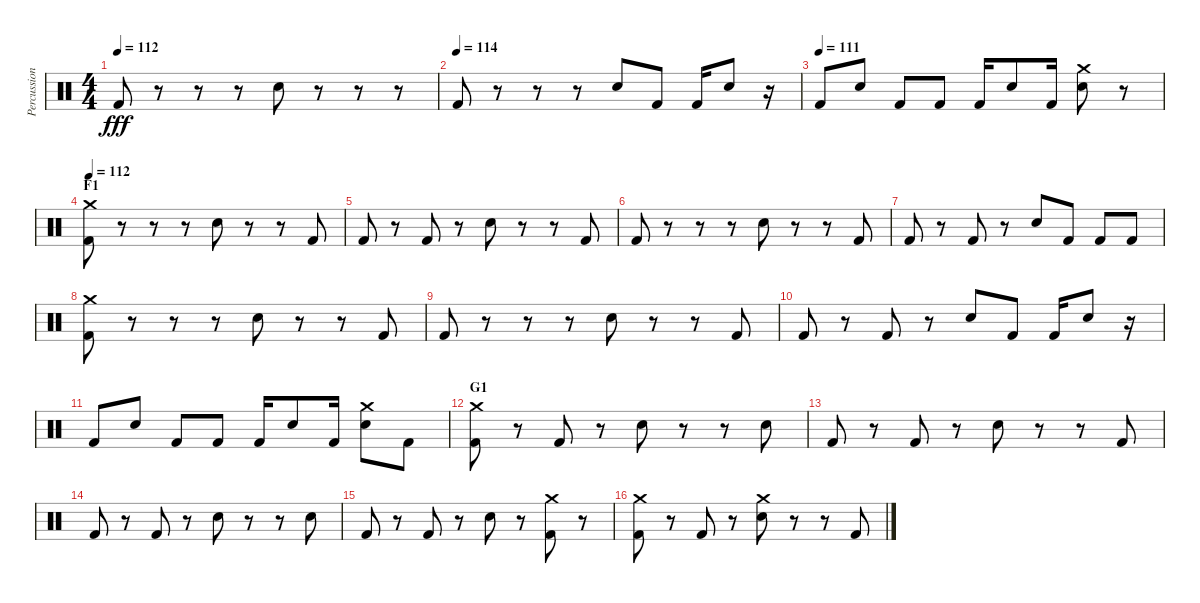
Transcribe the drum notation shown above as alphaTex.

\track ("Percussion" "Percussion") {instrument percussion}
\staff {score}
\articulation defaults
\ts (4 4)
\tempo 112
\clef neutral
\ks c "Kick (hit) 2".8{dy fff}
r.8 r.8 r.8 "Electric Snare (hit)".8 r.8 r.8 r.8 |
\tempo (114)
"Kick (hit) 2".8 r.8 r.8 r.8 "Electric Snare (hit)".8 "Kick (hit) 2".8 "Kick (hit) 2".16 "Electric Snare (hit)".8 r.16 |
\tempo (111)
"Kick (hit) 2".8 "Electric Snare (hit)".8 "Kick (hit) 2".8 "Kick (hit) 2".8 "Kick (hit) 2".16 "Electric Snare (hit)".8 "Kick (hit) 2".16 ("Electric Snare (hit)" "Crash medium (hit)").8 r.8 |
\section ("" "F1")
\tempo 112
("Kick (hit) 2" "Crash medium (hit)").8 r.8 r.8 r.8 "Electric Snare (hit)".8 r.8 r.8 "Kick (hit) 2".8 |
"Kick (hit) 2".8 r.8 "Kick (hit) 2".8 r.8 "Electric Snare (hit)".8 r.8 r.8 "Kick (hit) 2".8 |
"Kick (hit) 2".8 r.8 r.8 r.8 "Electric Snare (hit)".8 r.8 r.8 "Kick (hit) 2".8 |
"Kick (hit) 2".8 r.8 "Kick (hit) 2".8 r.8 "Electric Snare (hit)".8 "Kick (hit) 2".8 "Kick (hit) 2".8 "Kick (hit) 2".8 |
("Kick (hit) 2" "Crash medium (hit)").8 r.8 r.8 r.8 "Electric Snare (hit)".8 r.8 r.8 "Kick (hit) 2".8 |
"Kick (hit) 2".8 r.8 r.8 r.8 "Electric Snare (hit)".8 r.8 r.8 "Kick (hit) 2".8 |
"Kick (hit) 2".8 r.8 "Kick (hit) 2".8 r.8 "Electric Snare (hit)".8 "Kick (hit) 2".8 "Kick (hit) 2".16 "Electric Snare (hit)".8 r.16 |
"Kick (hit) 2".8 "Electric Snare (hit)".8 "Kick (hit) 2".8 "Kick (hit) 2".8 "Kick (hit) 2".16 "Electric Snare (hit)".8 "Kick (hit) 2".16 ("Electric Snare (hit)" "Crash medium (hit)").8 "Kick (hit) 2".8 |
\section ("" "G1")
("Kick (hit) 2" "Crash medium (hit)").8 r.8 "Kick (hit) 2".8 r.8 "Electric Snare (hit)".8 r.8 r.8 "Electric Snare (hit)".8 |
"Kick (hit) 2".8 r.8 "Kick (hit) 2".8 r.8 "Electric Snare (hit)".8 r.8 r.8 "Kick (hit) 2".8 |
"Kick (hit) 2".8 r.8 "Kick (hit) 2".8 r.8 "Electric Snare (hit)".8 r.8 r.8 "Electric Snare (hit)".8 |
"Kick (hit) 2".8 r.8 "Kick (hit) 2".8 r.8 "Electric Snare (hit)".8 r.8 ("Kick (hit) 2" "Crash medium (hit)").8 r.8 |
("Kick (hit) 2" "Crash medium (hit)").8 r.8 "Kick (hit) 2".8 r.8 ("Electric Snare (hit)" "Crash medium (hit)").8 r.8 r.8 "Kick (hit) 2".8
